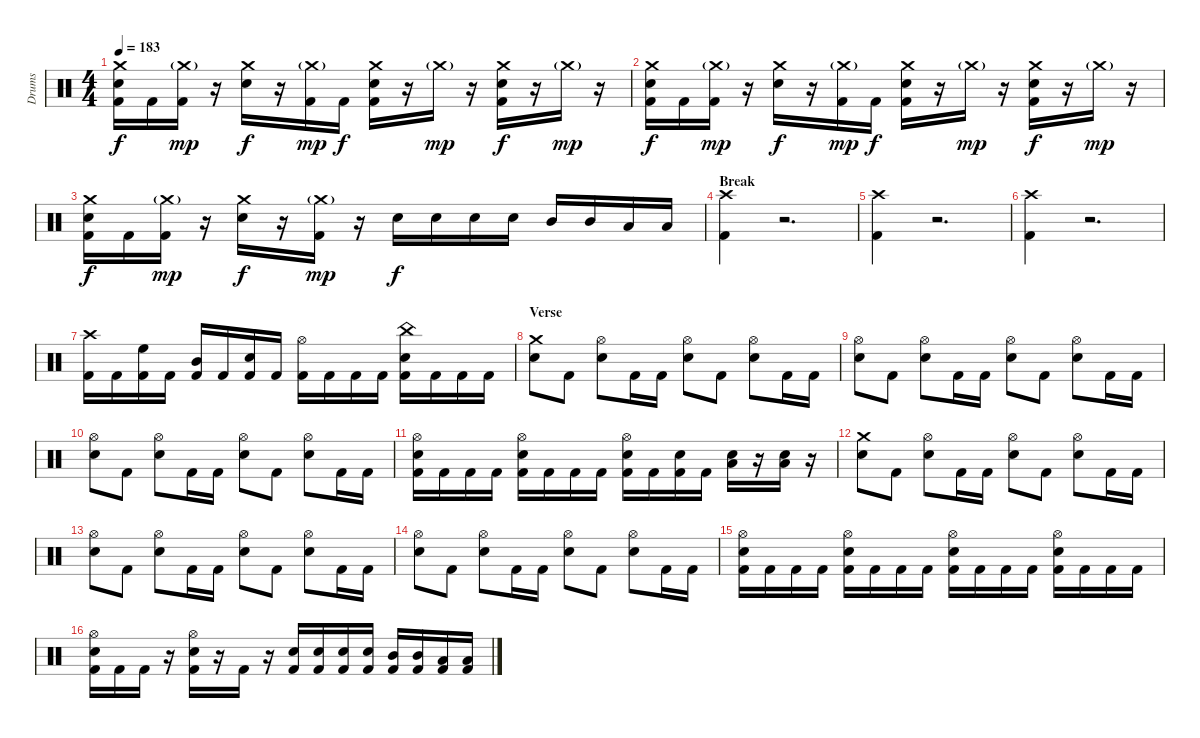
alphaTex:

\track ("Drums" "Drums") {instrument percussion}
\staff {score}
\articulation defaults
\ts (4 4)
\tempo 183
\clef neutral
\ks c
("Crash medium (hit)" "Electric Snare (hit)" "Kick (hit) 2").16{dy f} "Kick (hit) 2".16 ("Crash medium (hit)"{g} "Kick (hit) 2").16{dy mp} r.16 ("Crash medium (hit)" "Electric Snare (hit)").16{dy f} r.16 ("Crash medium (hit)"{g} "Kick (hit) 2").16{dy mp} "Kick (hit) 2".16{dy f} ("Crash medium (hit)" "Electric Snare (hit)" "Kick (hit) 2").16 r.16 "Crash medium (hit)"{g}.16{dy mp} r.16 ("Crash medium (hit)" "Electric Snare (hit)" "Kick (hit) 2").16{dy f} r.16 "Crash medium (hit)"{g}.16{dy mp} r.16 |
("Crash medium (hit)" "Electric Snare (hit)" "Kick (hit) 2").16{dy f} "Kick (hit) 2".16 ("Crash medium (hit)"{g} "Kick (hit) 2").16{dy mp} r.16 ("Crash medium (hit)" "Electric Snare (hit)").16{dy f} r.16 ("Crash medium (hit)"{g} "Kick (hit) 2").16{dy mp} "Kick (hit) 2".16{dy f} ("Crash medium (hit)" "Electric Snare (hit)" "Kick (hit) 2").16 r.16 "Crash medium (hit)"{g}.16{dy mp} r.16 ("Crash medium (hit)" "Electric Snare (hit)" "Kick (hit) 2").16{dy f} r.16 "Crash medium (hit)"{g}.16{dy mp} r.16 |
("Crash medium (hit)" "Electric Snare (hit)" "Kick (hit) 2").16{dy f} "Kick (hit) 2".16 ("Crash medium (hit)"{g} "Kick (hit) 2").16{dy mp} r.16 ("Crash medium (hit)" "Electric Snare (hit)").16{dy f} r.16 ("Crash medium (hit)"{g} "Kick (hit) 2").16{dy mp} r.16 "Electric Snare (hit)".16{dy f} "Electric Snare (hit)".16 "Electric Snare (hit)".16 "Electric Snare (hit)".16 "Mid Tom (hit)".16 "Mid Tom (hit)".16 "Low Tom (hit)".16 "Low Tom (hit)".16 |
\section ("" "Break")
("Crash high (hit)" "Kick (hit) 2").4 r.2{d volume 0} |
("Crash high (hit)" "Kick (hit) 2").4{volume 15} r.2{d volume 0} |
("Crash high (hit)" "Kick (hit) 2").4{volume 15} r.2{d volume 0} |
("Crash high (hit)" "Kick (hit) 2").16{volume 15} "Kick (hit) 2".16 ("High Floor Tom (hit)" "Kick (hit) 2").16 "Kick (hit) 2".16 ("Mid Tom (hit)" "Kick (hit) 2").16 "Kick (hit) 2".16 ("Electric Snare (hit)" "Kick (hit) 2").16 "Kick (hit) 2".16 ("Hi-Hat (open)" "Kick (hit) 2").16 "Kick (hit) 2".16 "Kick (hit) 2".16 "Kick (hit) 2".16 ("China (hit)" "Electric Snare (hit)" "Kick (hit) 2").16 "Kick (hit) 2".16 "Kick (hit) 2".16 "Kick (hit) 2".16 |
\section ("" "Verse")
("Crash medium (hit)" "Electric Snare (hit)").8 "Kick (hit) 2".8 ("Hi-Hat (open)" "Electric Snare (hit)").8 "Kick (hit) 2".16 "Kick (hit) 2".16 ("Hi-Hat (open)" "Electric Snare (hit)").8 "Kick (hit) 2".8 ("Hi-Hat (open)" "Electric Snare (hit)").8 "Kick (hit) 2".16 "Kick (hit) 2".16 |
("Hi-Hat (open)" "Electric Snare (hit)").8 "Kick (hit) 2".8 ("Hi-Hat (open)" "Electric Snare (hit)").8 "Kick (hit) 2".16 "Kick (hit) 2".16 ("Hi-Hat (open)" "Electric Snare (hit)").8 "Kick (hit) 2".8 ("Hi-Hat (open)" "Electric Snare (hit)").8 "Kick (hit) 2".16 "Kick (hit) 2".16 |
("Hi-Hat (open)" "Electric Snare (hit)").8 "Kick (hit) 2".8 ("Hi-Hat (open)" "Electric Snare (hit)").8 "Kick (hit) 2".16 "Kick (hit) 2".16 ("Hi-Hat (open)" "Electric Snare (hit)").8 "Kick (hit) 2".8 ("Hi-Hat (open)" "Electric Snare (hit)").8 "Kick (hit) 2".16 "Kick (hit) 2".16 |
("Hi-Hat (open)" "Electric Snare (hit)" "Kick (hit) 2").16 "Kick (hit) 2".16 "Kick (hit) 2".16 "Kick (hit) 2".16 ("Hi-Hat (open)" "Electric Snare (hit)" "Kick (hit) 2").16 "Kick (hit) 2".16 "Kick (hit) 2".16 "Kick (hit) 2".16 ("Hi-Hat (open)" "Electric Snare (hit)" "Kick (hit) 2").16 "Kick (hit) 2".16 ("Electric Snare (hit)" "Kick (hit) 2").16 "Kick (hit) 2".16 ("Electric Snare (hit)" "Low Tom (hit)").16 r.16 ("Electric Snare (hit)" "Low Tom (hit)").16 r.16 |
("Crash medium (hit)" "Electric Snare (hit)").8 "Kick (hit) 2".8 ("Hi-Hat (open)" "Electric Snare (hit)").8 "Kick (hit) 2".16 "Kick (hit) 2".16 ("Hi-Hat (open)" "Electric Snare (hit)").8 "Kick (hit) 2".8 ("Hi-Hat (open)" "Electric Snare (hit)").8 "Kick (hit) 2".16 "Kick (hit) 2".16 |
("Hi-Hat (open)" "Electric Snare (hit)").8 "Kick (hit) 2".8 ("Hi-Hat (open)" "Electric Snare (hit)").8 "Kick (hit) 2".16 "Kick (hit) 2".16 ("Hi-Hat (open)" "Electric Snare (hit)").8 "Kick (hit) 2".8 ("Hi-Hat (open)" "Electric Snare (hit)").8 "Kick (hit) 2".16 "Kick (hit) 2".16 |
("Hi-Hat (open)" "Electric Snare (hit)").8 "Kick (hit) 2".8 ("Hi-Hat (open)" "Electric Snare (hit)").8 "Kick (hit) 2".16 "Kick (hit) 2".16 ("Hi-Hat (open)" "Electric Snare (hit)").8 "Kick (hit) 2".8 ("Hi-Hat (open)" "Electric Snare (hit)").8 "Kick (hit) 2".16 "Kick (hit) 2".16 |
("Hi-Hat (open)" "Electric Snare (hit)" "Kick (hit) 2").16 "Kick (hit) 2".16 "Kick (hit) 2".16 "Kick (hit) 2".16 ("Hi-Hat (open)" "Electric Snare (hit)" "Kick (hit) 2").16 "Kick (hit) 2".16 "Kick (hit) 2".16 "Kick (hit) 2".16 ("Hi-Hat (open)" "Electric Snare (hit)" "Kick (hit) 2").16 "Kick (hit) 2".16 "Kick (hit) 2".16 "Kick (hit) 2".16 ("Hi-Hat (open)" "Electric Snare (hit)" "Kick (hit) 2").16 "Kick (hit) 2".16 "Kick (hit) 2".16 "Kick (hit) 2".16 |
("Hi-Hat (open)" "Electric Snare (hit)" "Kick (hit) 2").16 "Kick (hit) 2".16 "Kick (hit) 2".16 r.16 ("Hi-Hat (open)" "Electric Snare (hit)" "Kick (hit) 2").16 r.16 "Kick (hit) 2".16 r.16 ("Electric Snare (hit)" "Kick (hit) 2").16 ("Electric Snare (hit)" "Kick (hit) 2").16 ("Electric Snare (hit)" "Kick (hit) 2").16 ("Electric Snare (hit)" "Kick (hit) 2").16 ("Mid Tom (hit)" "Kick (hit) 2").16 ("Mid Tom (hit)" "Kick (hit) 2").16 ("Low Tom (hit)" "Kick (hit) 2").16 ("Low Tom (hit)" "Kick (hit) 2").16
